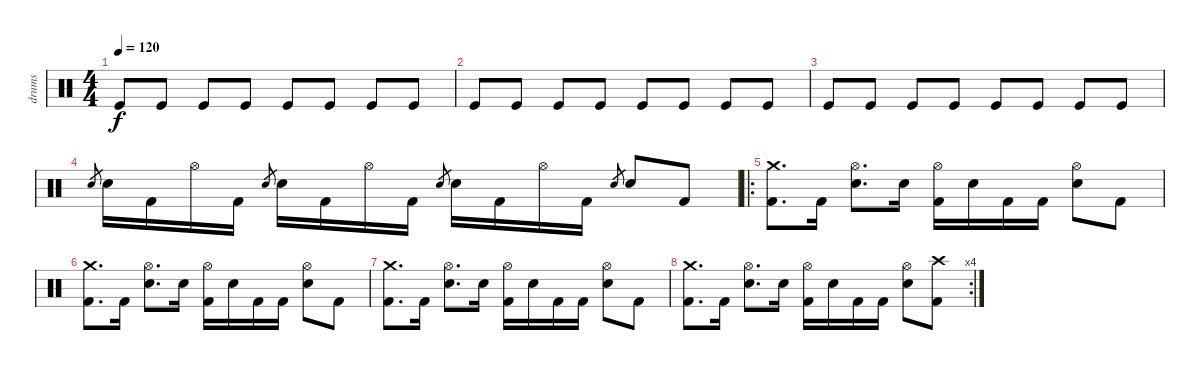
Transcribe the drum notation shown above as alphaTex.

\track ("drums" "drums") {instrument percussion}
\staff {score}
\articulation defaults
\ts (4 4)
\tempo 120
\clef neutral
\ks c "Kick (hit)".8{dy f} "Kick (hit)".8 "Kick (hit)".8 "Kick (hit)".8 "Kick (hit)".8 "Kick (hit)".8 "Kick (hit)".8 "Kick (hit)".8
|
"Kick (hit)".8 "Kick (hit)".8 "Kick (hit)".8 "Kick (hit)".8 "Kick (hit)".8 "Kick (hit)".8 "Kick (hit)".8 "Kick (hit)".8 |
"Kick (hit)".8 "Kick (hit)".8 "Kick (hit)".8 "Kick (hit)".8 "Kick (hit)".8 "Kick (hit)".8 "Kick (hit)".8 "Kick (hit)".8 |
"Electric Snare (hit)".8{gr} "Electric Snare (hit)".16 "Kick (hit) 2".16 "Hi-Hat (open)".16 "Kick (hit) 2".16 "Electric Snare (hit)".8{gr} "Electric Snare (hit)".16 "Kick (hit) 2".16 "Hi-Hat (open)".16 "Kick (hit) 2".16 "Electric Snare (hit)".8{gr} "Electric Snare (hit)".16 "Kick (hit) 2".16 "Hi-Hat (open)".16 "Kick (hit) 2".16 "Electric Snare (hit)".8{gr} "Electric Snare (hit)".8 "Kick (hit) 2".8 |
\ro
("Crash medium (hit)" "Kick (hit) 2").8{d} "Kick (hit) 2".16 ("Hi-Hat (open)" "Electric Snare (hit)").8{d} "Electric Snare (hit)".16 ("Hi-Hat (open)" "Kick (hit) 2").16 "Electric Snare (hit)".16 "Kick (hit) 2".16 "Kick (hit) 2".16 ("Hi-Hat (open)" "Electric Snare (hit)").8 "Kick (hit) 2".8 |
("Crash medium (hit)" "Kick (hit) 2").8{d} "Kick (hit) 2".16 ("Hi-Hat (open)" "Electric Snare (hit)").8{d} "Electric Snare (hit)".16 ("Hi-Hat (open)" "Kick (hit) 2").16 "Electric Snare (hit)".16 "Kick (hit) 2".16 "Kick (hit) 2".16 ("Hi-Hat (open)" "Electric Snare (hit)").8 "Kick (hit) 2".8 |
("Crash medium (hit)" "Kick (hit) 2").8{d} "Kick (hit) 2".16 ("Hi-Hat (open)" "Electric Snare (hit)").8{d} "Electric Snare (hit)".16 ("Hi-Hat (open)" "Kick (hit) 2").16 "Electric Snare (hit)".16 "Kick (hit) 2".16 "Kick (hit) 2".16 ("Hi-Hat (open)" "Electric Snare (hit)").8 "Kick (hit) 2".8 |
\rc 4
("Crash medium (hit)" "Kick (hit) 2").8{d} "Kick (hit) 2".16 ("Hi-Hat (open)" "Electric Snare (hit)").8{d} "Electric Snare (hit)".16 ("Hi-Hat (open)" "Kick (hit) 2").16 "Electric Snare (hit)".16 "Kick (hit) 2".16 "Kick (hit) 2".16 ("Hi-Hat (open)" "Electric Snare (hit)").8 ("Crash high (hit)" "Kick (hit) 2").8
